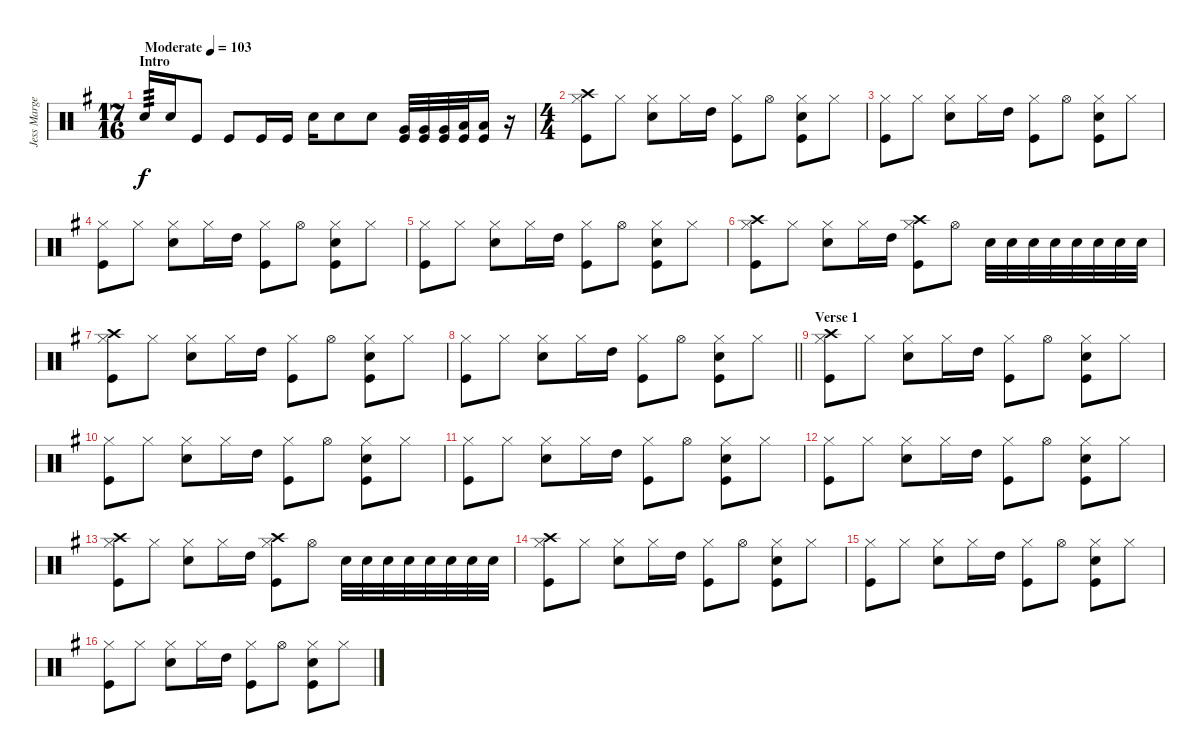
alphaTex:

\track ("Jess Margera" "Jess Marge") {instrument percussion}
\staff {score}
\articulation defaults
\ts (17 16)
\section ("" "Intro")
\tempo (103 "Moderate")
\clef neutral
\ks g "Snare (hit) 2".16{tp 3 dy f} "Snare (hit) 2".16 "Kick (hit)".8 "Kick (hit)".8 "Kick (hit)".16 "Kick (hit)".16 "Snare (hit) 2".16 "Snare (hit) 2".8 "Snare (hit) 2".8
("Very Low Tom (hit)" "Kick (hit)").32 ("Very Low Tom (hit)" "Kick (hit)").32 ("Very Low Tom (hit)" "Kick (hit)").32 ("Low Floor Tom (hit)" "Kick (hit)").32 ("Low Floor Tom (hit)" "Kick (hit)").16 r.16 |
\ts (4 4)
("Crash high (hit)" "Hi-Hat (closed)" "Kick (hit)").8 "Hi-Hat (closed)".8 ("Hi-Hat (closed)" "Snare (hit) 2").8 "Hi-Hat (closed)".16 "High Tom (hit)".16 ("Hi-Hat (closed)" "Kick (hit)").8 "Hi-Hat (open)".8 ("Hi-Hat (closed)" "Snare (hit) 2" "Kick (hit)").8 "Hi-Hat (closed)".8 |
("Hi-Hat (closed)" "Kick (hit)").8 "Hi-Hat (closed)".8 ("Hi-Hat (closed)" "Snare (hit) 2").8 "Hi-Hat (closed)".16 "High Tom (hit)".16 ("Hi-Hat (closed)" "Kick (hit)").8 "Hi-Hat (open)".8 ("Hi-Hat (closed)" "Snare (hit) 2" "Kick (hit)").8 "Hi-Hat (closed)".8 |
("Hi-Hat (closed)" "Kick (hit)").8 "Hi-Hat (closed)".8 ("Hi-Hat (closed)" "Snare (hit) 2").8 "Hi-Hat (closed)".16 "High Tom (hit)".16 ("Hi-Hat (closed)" "Kick (hit)").8 "Hi-Hat (open)".8 ("Hi-Hat (closed)" "Snare (hit) 2" "Kick (hit)").8 "Hi-Hat (closed)".8 |
("Hi-Hat (closed)" "Kick (hit)").8 "Hi-Hat (closed)".8 ("Hi-Hat (closed)" "Snare (hit) 2").8 "Hi-Hat (closed)".16 "High Tom (hit)".16 ("Hi-Hat (closed)" "Kick (hit)").8 "Hi-Hat (open)".8 ("Hi-Hat (closed)" "Snare (hit) 2" "Kick (hit)").8 "Hi-Hat (closed)".8 |
("Crash high (hit)" "Hi-Hat (closed)" "Kick (hit)").8 "Hi-Hat (closed)".8 ("Hi-Hat (closed)" "Snare (hit) 2").8 "Hi-Hat (closed)".16 "High Tom (hit)".16 ("Crash high (hit)" "Hi-Hat (closed)" "Kick (hit)").8 "Hi-Hat (open)".8 "Snare (hit) 2".32 "Snare (hit) 2".32 "Snare (hit) 2".32 "Snare (hit) 2".32 "Snare (hit) 2".32 "Snare (hit) 2".32 "Snare (hit) 2".32 "Snare (hit) 2".32 |
("Crash high (hit)" "Hi-Hat (closed)" "Kick (hit)").8 "Hi-Hat (closed)".8 ("Hi-Hat (closed)" "Snare (hit) 2").8 "Hi-Hat (closed)".16 "High Tom (hit)".16 ("Hi-Hat (closed)" "Kick (hit)").8 "Hi-Hat (open)".8 ("Hi-Hat (closed)" "Snare (hit) 2" "Kick (hit)").8 "Hi-Hat (closed)".8 |
\barLineRight lightlight
("Hi-Hat (closed)" "Kick (hit)").8 "Hi-Hat (closed)".8 ("Hi-Hat (closed)" "Snare (hit) 2").8 "Hi-Hat (closed)".16 "High Tom (hit)".16 ("Hi-Hat (closed)" "Kick (hit)").8 "Hi-Hat (open)".8 ("Hi-Hat (closed)" "Snare (hit) 2" "Kick (hit)").8 "Hi-Hat (closed)".8 |
\section ("" "Verse 1")
("Crash high (hit)" "Hi-Hat (closed)" "Kick (hit)").8 "Hi-Hat (closed)".8 ("Hi-Hat (closed)" "Snare (hit) 2").8 "Hi-Hat (closed)".16 "High Tom (hit)".16 ("Hi-Hat (closed)" "Kick (hit)").8 "Hi-Hat (open)".8 ("Hi-Hat (closed)" "Snare (hit) 2" "Kick (hit)").8 "Hi-Hat (closed)".8 |
("Hi-Hat (closed)" "Kick (hit)").8 "Hi-Hat (closed)".8 ("Hi-Hat (closed)" "Snare (hit) 2").8 "Hi-Hat (closed)".16 "High Tom (hit)".16 ("Hi-Hat (closed)" "Kick (hit)").8 "Hi-Hat (open)".8 ("Hi-Hat (closed)" "Snare (hit) 2" "Kick (hit)").8 "Hi-Hat (closed)".8 |
("Hi-Hat (closed)" "Kick (hit)").8 "Hi-Hat (closed)".8 ("Hi-Hat (closed)" "Snare (hit) 2").8 "Hi-Hat (closed)".16 "High Tom (hit)".16 ("Hi-Hat (closed)" "Kick (hit)").8 "Hi-Hat (open)".8 ("Hi-Hat (closed)" "Snare (hit) 2" "Kick (hit)").8 "Hi-Hat (closed)".8 |
("Hi-Hat (closed)" "Kick (hit)").8 "Hi-Hat (closed)".8 ("Hi-Hat (closed)" "Snare (hit) 2").8 "Hi-Hat (closed)".16 "High Tom (hit)".16 ("Hi-Hat (closed)" "Kick (hit)").8 "Hi-Hat (open)".8 ("Hi-Hat (closed)" "Snare (hit) 2" "Kick (hit)").8 "Hi-Hat (closed)".8 |
("Crash high (hit)" "Hi-Hat (closed)" "Kick (hit)").8 "Hi-Hat (closed)".8 ("Hi-Hat (closed)" "Snare (hit) 2").8 "Hi-Hat (closed)".16 "High Tom (hit)".16 ("Crash high (hit)" "Hi-Hat (closed)" "Kick (hit)").8 "Hi-Hat (open)".8 "Snare (hit) 2".32 "Snare (hit) 2".32 "Snare (hit) 2".32 "Snare (hit) 2".32 "Snare (hit) 2".32 "Snare (hit) 2".32 "Snare (hit) 2".32 "Snare (hit) 2".32 |
("Crash high (hit)" "Hi-Hat (closed)" "Kick (hit)").8 "Hi-Hat (closed)".8 ("Hi-Hat (closed)" "Snare (hit) 2").8 "Hi-Hat (closed)".16 "High Tom (hit)".16 ("Hi-Hat (closed)" "Kick (hit)").8 "Hi-Hat (open)".8 ("Hi-Hat (closed)" "Snare (hit) 2" "Kick (hit)").8 "Hi-Hat (closed)".8 |
("Hi-Hat (closed)" "Kick (hit)").8 "Hi-Hat (closed)".8 ("Hi-Hat (closed)" "Snare (hit) 2").8 "Hi-Hat (closed)".16 "High Tom (hit)".16 ("Hi-Hat (closed)" "Kick (hit)").8 "Hi-Hat (open)".8 ("Hi-Hat (closed)" "Snare (hit) 2" "Kick (hit)").8 "Hi-Hat (closed)".8 |
("Hi-Hat (closed)" "Kick (hit)").8 "Hi-Hat (closed)".8 ("Hi-Hat (closed)" "Snare (hit) 2").8 "Hi-Hat (closed)".16 "High Tom (hit)".16 ("Hi-Hat (closed)" "Kick (hit)").8 "Hi-Hat (open)".8 ("Hi-Hat (closed)" "Snare (hit) 2" "Kick (hit)").8 "Hi-Hat (closed)".8
